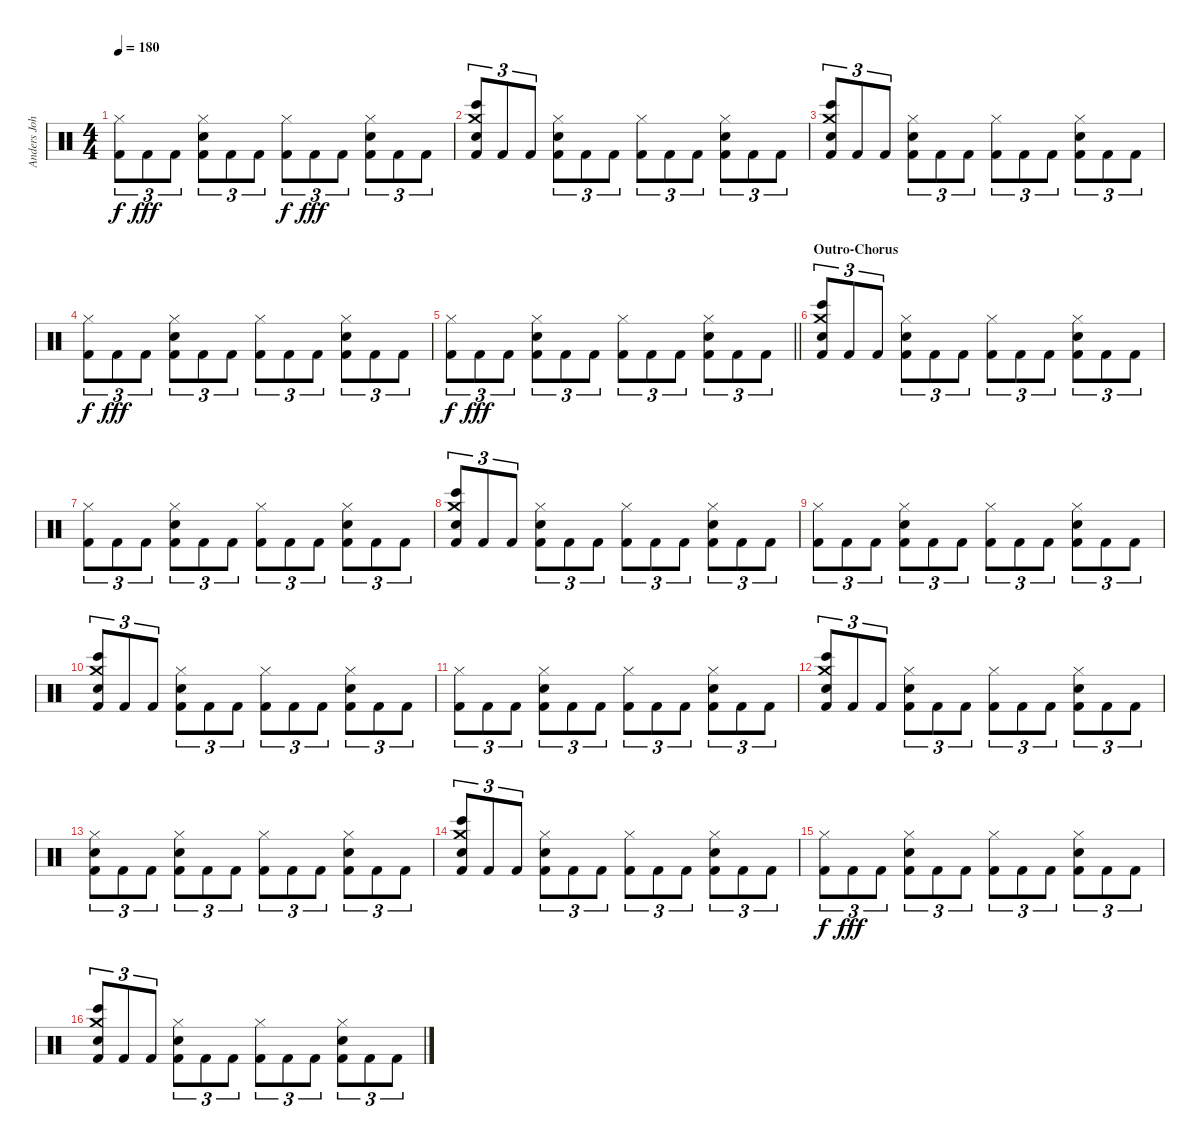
\track ("Anders Johansson" "Anders Joh") {instrument percussion}
\staff {score}
\articulation defaults
\ts (4 4)
\tempo 180
\clef neutral
\ks c
("Hi-Hat (closed)" "Kick (hit) 2").8{tu (3 2) dy f} "Kick (hit) 2".8{tu (3 2) dy fff} "Kick (hit) 2".8{tu (3 2)} ("Hi-Hat (closed)" "Electric Snare (hit)" "Kick (hit) 2").8{tu (3 2)} "Kick (hit) 2".8{tu (3 2)} "Kick (hit) 2".8{tu (3 2)} ("Hi-Hat (closed)" "Kick (hit) 2").8{tu (3 2) dy f} "Kick (hit) 2".8{tu (3 2) dy fff} "Kick (hit) 2".8{tu (3 2)} ("Hi-Hat (closed)" "Electric Snare (hit)" "Kick (hit) 2").8{tu (3 2)} "Kick (hit) 2".8{tu (3 2)} "Kick (hit) 2".8{tu (3 2)} |
("Bongo High (hit)" "Crash medium (hit)" "Snare (hit) 2" "Kick (hit) 2").8{tu (3 2)} "Kick (hit) 2".8{tu (3 2)} "Kick (hit) 2".8{tu (3 2)} ("Hi-Hat (closed)" "Electric Snare (hit)" "Kick (hit) 2").8{tu (3 2)} "Kick (hit) 2".8{tu (3 2)} "Kick (hit) 2".8{tu (3 2)} ("Hi-Hat (closed)" "Kick (hit) 2").8{tu (3 2)} "Kick (hit) 2".8{tu (3 2)} "Kick (hit) 2".8{tu (3 2)} ("Hi-Hat (closed)" "Electric Snare (hit)" "Kick (hit) 2").8{tu (3 2)} "Kick (hit) 2".8{tu (3 2)} "Kick (hit) 2".8{tu (3 2)} |
("Bongo High (hit)" "Crash medium (hit)" "Snare (hit) 2" "Kick (hit) 2").8{tu (3 2)} "Kick (hit) 2".8{tu (3 2)} "Kick (hit) 2".8{tu (3 2)} ("Hi-Hat (closed)" "Electric Snare (hit)" "Kick (hit) 2").8{tu (3 2)} "Kick (hit) 2".8{tu (3 2)} "Kick (hit) 2".8{tu (3 2)} ("Hi-Hat (closed)" "Kick (hit) 2").8{tu (3 2)} "Kick (hit) 2".8{tu (3 2)} "Kick (hit) 2".8{tu (3 2)} ("Hi-Hat (closed)" "Electric Snare (hit)" "Kick (hit) 2").8{tu (3 2)} "Kick (hit) 2".8{tu (3 2)} "Kick (hit) 2".8{tu (3 2)} |
("Hi-Hat (closed)" "Kick (hit) 2").8{tu (3 2) dy f} "Kick (hit) 2".8{tu (3 2) dy fff} "Kick (hit) 2".8{tu (3 2)} ("Hi-Hat (closed)" "Electric Snare (hit)" "Kick (hit) 2").8{tu (3 2)} "Kick (hit) 2".8{tu (3 2)} "Kick (hit) 2".8{tu (3 2)} ("Hi-Hat (closed)" "Kick (hit) 2").8{tu (3 2)} "Kick (hit) 2".8{tu (3 2)} "Kick (hit) 2".8{tu (3 2)} ("Hi-Hat (closed)" "Electric Snare (hit)" "Kick (hit) 2").8{tu (3 2)} "Kick (hit) 2".8{tu (3 2)} "Kick (hit) 2".8{tu (3 2)} |
\barLineRight lightlight
("Hi-Hat (closed)" "Kick (hit) 2").8{tu (3 2) dy f} "Kick (hit) 2".8{tu (3 2) dy fff} "Kick (hit) 2".8{tu (3 2)} ("Hi-Hat (closed)" "Electric Snare (hit)" "Kick (hit) 2").8{tu (3 2)} "Kick (hit) 2".8{tu (3 2)} "Kick (hit) 2".8{tu (3 2)} ("Hi-Hat (closed)" "Kick (hit) 2").8{tu (3 2)} "Kick (hit) 2".8{tu (3 2)} "Kick (hit) 2".8{tu (3 2)} ("Hi-Hat (closed)" "Electric Snare (hit)" "Kick (hit) 2").8{tu (3 2)} "Kick (hit) 2".8{tu (3 2)} "Kick (hit) 2".8{tu (3 2)} |
\section ("" "Outro-Chorus")
("Bongo High (hit)" "Crash medium (hit)" "Snare (hit) 2" "Kick (hit) 2").8{tu (3 2)} "Kick (hit) 2".8{tu (3 2)} "Kick (hit) 2".8{tu (3 2)} ("Hi-Hat (closed)" "Electric Snare (hit)" "Kick (hit) 2").8{tu (3 2)} "Kick (hit) 2".8{tu (3 2)} "Kick (hit) 2".8{tu (3 2)} ("Hi-Hat (closed)" "Kick (hit) 2").8{tu (3 2)} "Kick (hit) 2".8{tu (3 2)} "Kick (hit) 2".8{tu (3 2)} ("Hi-Hat (closed)" "Electric Snare (hit)" "Kick (hit) 2").8{tu (3 2)} "Kick (hit) 2".8{tu (3 2)} "Kick (hit) 2".8{tu (3 2)} |
("Hi-Hat (closed)" "Kick (hit) 2").8{tu (3 2)} "Kick (hit) 2".8{tu (3 2)} "Kick (hit) 2".8{tu (3 2)} ("Hi-Hat (closed)" "Electric Snare (hit)" "Kick (hit) 2").8{tu (3 2)} "Kick (hit) 2".8{tu (3 2)} "Kick (hit) 2".8{tu (3 2)} ("Hi-Hat (closed)" "Kick (hit) 2").8{tu (3 2)} "Kick (hit) 2".8{tu (3 2)} "Kick (hit) 2".8{tu (3 2)} ("Hi-Hat (closed)" "Electric Snare (hit)" "Kick (hit) 2").8{tu (3 2)} "Kick (hit) 2".8{tu (3 2)} "Kick (hit) 2".8{tu (3 2)} |
("Bongo High (hit)" "Crash medium (hit)" "Snare (hit) 2" "Kick (hit) 2").8{tu (3 2)} "Kick (hit) 2".8{tu (3 2)} "Kick (hit) 2".8{tu (3 2)} ("Hi-Hat (closed)" "Electric Snare (hit)" "Kick (hit) 2").8{tu (3 2)} "Kick (hit) 2".8{tu (3 2)} "Kick (hit) 2".8{tu (3 2)} ("Hi-Hat (closed)" "Kick (hit) 2").8{tu (3 2)} "Kick (hit) 2".8{tu (3 2)} "Kick (hit) 2".8{tu (3 2)} ("Hi-Hat (closed)" "Electric Snare (hit)" "Kick (hit) 2").8{tu (3 2)} "Kick (hit) 2".8{tu (3 2)} "Kick (hit) 2".8{tu (3 2)} |
("Hi-Hat (closed)" "Kick (hit) 2").8{tu (3 2)} "Kick (hit) 2".8{tu (3 2)} "Kick (hit) 2".8{tu (3 2)} ("Hi-Hat (closed)" "Electric Snare (hit)" "Kick (hit) 2").8{tu (3 2)} "Kick (hit) 2".8{tu (3 2)} "Kick (hit) 2".8{tu (3 2)} ("Hi-Hat (closed)" "Kick (hit) 2").8{tu (3 2)} "Kick (hit) 2".8{tu (3 2)} "Kick (hit) 2".8{tu (3 2)} ("Hi-Hat (closed)" "Electric Snare (hit)" "Kick (hit) 2").8{tu (3 2)} "Kick (hit) 2".8{tu (3 2)} "Kick (hit) 2".8{tu (3 2)} |
("Bongo High (hit)" "Crash medium (hit)" "Snare (hit) 2" "Kick (hit) 2").8{tu (3 2)} "Kick (hit) 2".8{tu (3 2)} "Kick (hit) 2".8{tu (3 2)} ("Hi-Hat (closed)" "Electric Snare (hit)" "Kick (hit) 2").8{tu (3 2)} "Kick (hit) 2".8{tu (3 2)} "Kick (hit) 2".8{tu (3 2)} ("Hi-Hat (closed)" "Kick (hit) 2").8{tu (3 2)} "Kick (hit) 2".8{tu (3 2)} "Kick (hit) 2".8{tu (3 2)} ("Hi-Hat (closed)" "Electric Snare (hit)" "Kick (hit) 2").8{tu (3 2)} "Kick (hit) 2".8{tu (3 2)} "Kick (hit) 2".8{tu (3 2)} |
("Hi-Hat (closed)" "Kick (hit) 2").8{tu (3 2)} "Kick (hit) 2".8{tu (3 2)} "Kick (hit) 2".8{tu (3 2)} ("Hi-Hat (closed)" "Electric Snare (hit)" "Kick (hit) 2").8{tu (3 2)} "Kick (hit) 2".8{tu (3 2)} "Kick (hit) 2".8{tu (3 2)} ("Hi-Hat (closed)" "Kick (hit) 2").8{tu (3 2)} "Kick (hit) 2".8{tu (3 2)} "Kick (hit) 2".8{tu (3 2)} ("Hi-Hat (closed)" "Electric Snare (hit)" "Kick (hit) 2").8{tu (3 2)} "Kick (hit) 2".8{tu (3 2)} "Kick (hit) 2".8{tu (3 2)} |
("Bongo High (hit)" "Crash medium (hit)" "Snare (hit) 2" "Kick (hit) 2").8{tu (3 2)} "Kick (hit) 2".8{tu (3 2)} "Kick (hit) 2".8{tu (3 2)} ("Hi-Hat (closed)" "Electric Snare (hit)" "Kick (hit) 2").8{tu (3 2)} "Kick (hit) 2".8{tu (3 2)} "Kick (hit) 2".8{tu (3 2)} ("Hi-Hat (closed)" "Kick (hit) 2").8{tu (3 2)} "Kick (hit) 2".8{tu (3 2)} "Kick (hit) 2".8{tu (3 2)} ("Hi-Hat (closed)" "Electric Snare (hit)" "Kick (hit) 2").8{tu (3 2)} "Kick (hit) 2".8{tu (3 2)} "Kick (hit) 2".8{tu (3 2)} |
("Hi-Hat (closed)" "Electric Snare (hit)" "Kick (hit) 2").8{tu (3 2)} "Kick (hit) 2".8{tu (3 2)} "Kick (hit) 2".8{tu (3 2)} ("Hi-Hat (closed)" "Electric Snare (hit)" "Kick (hit) 2").8{tu (3 2)} "Kick (hit) 2".8{tu (3 2)} "Kick (hit) 2".8{tu (3 2)} ("Hi-Hat (closed)" "Kick (hit) 2").8{tu (3 2)} "Kick (hit) 2".8{tu (3 2)} "Kick (hit) 2".8{tu (3 2)} ("Hi-Hat (closed)" "Electric Snare (hit)" "Kick (hit) 2").8{tu (3 2)} "Kick (hit) 2".8{tu (3 2)} "Kick (hit) 2".8{tu (3 2)} |
("Bongo High (hit)" "Crash medium (hit)" "Snare (hit) 2" "Kick (hit) 2").8{tu (3 2)} "Kick (hit) 2".8{tu (3 2)} "Kick (hit) 2".8{tu (3 2)} ("Hi-Hat (closed)" "Electric Snare (hit)" "Kick (hit) 2").8{tu (3 2)} "Kick (hit) 2".8{tu (3 2)} "Kick (hit) 2".8{tu (3 2)} ("Hi-Hat (closed)" "Kick (hit) 2").8{tu (3 2)} "Kick (hit) 2".8{tu (3 2)} "Kick (hit) 2".8{tu (3 2)} ("Hi-Hat (closed)" "Electric Snare (hit)" "Kick (hit) 2").8{tu (3 2)} "Kick (hit) 2".8{tu (3 2)} "Kick (hit) 2".8{tu (3 2)} |
("Hi-Hat (closed)" "Kick (hit) 2").8{tu (3 2) dy f} "Kick (hit) 2".8{tu (3 2) dy fff} "Kick (hit) 2".8{tu (3 2)} ("Hi-Hat (closed)" "Electric Snare (hit)" "Kick (hit) 2").8{tu (3 2)} "Kick (hit) 2".8{tu (3 2)} "Kick (hit) 2".8{tu (3 2)} ("Hi-Hat (closed)" "Kick (hit) 2").8{tu (3 2)} "Kick (hit) 2".8{tu (3 2)} "Kick (hit) 2".8{tu (3 2)} ("Hi-Hat (closed)" "Electric Snare (hit)" "Kick (hit) 2").8{tu (3 2)} "Kick (hit) 2".8{tu (3 2)} "Kick (hit) 2".8{tu (3 2)} |
("Bongo High (hit)" "Crash medium (hit)" "Snare (hit) 2" "Kick (hit) 2").8{tu (3 2)} "Kick (hit) 2".8{tu (3 2)} "Kick (hit) 2".8{tu (3 2)} ("Hi-Hat (closed)" "Electric Snare (hit)" "Kick (hit) 2").8{tu (3 2)} "Kick (hit) 2".8{tu (3 2)} "Kick (hit) 2".8{tu (3 2)} ("Hi-Hat (closed)" "Kick (hit) 2").8{tu (3 2)} "Kick (hit) 2".8{tu (3 2)} "Kick (hit) 2".8{tu (3 2)} ("Hi-Hat (closed)" "Electric Snare (hit)" "Kick (hit) 2").8{tu (3 2)} "Kick (hit) 2".8{tu (3 2)} "Kick (hit) 2".8{tu (3 2)}
